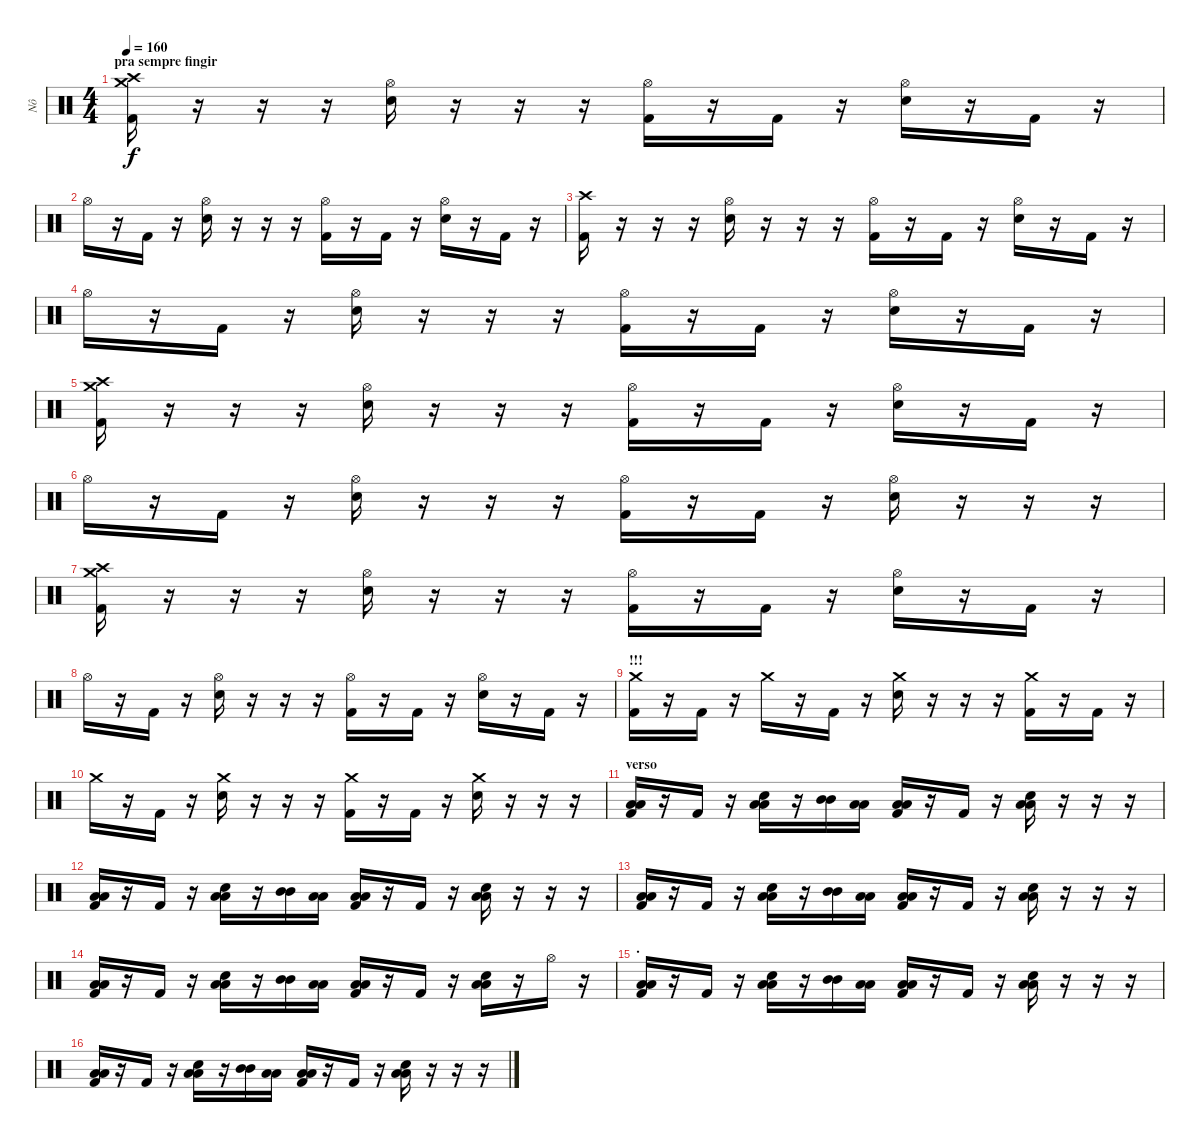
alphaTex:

\track ("Nô" "Nô") {instrument percussion}
\staff {score}
\articulation defaults
\ts (4 4)
\section ("" "pra sempre fingir")
\tempo 160
\clef neutral
\ks c
("Crash high (hit)" "Crash medium (hit)" "Kick (hit) 2").16{dy f} r.16 r.16 r.16 ("Hi-Hat (open)" "Electric Snare (hit)").16 r.16 r.16 r.16 ("Hi-Hat (open)" "Kick (hit) 2").16 r.16 "Kick (hit) 2".16 r.16 ("Hi-Hat (open)" "Electric Snare (hit)").16 r.16 "Kick (hit) 2".16 r.16 |
"Hi-Hat (open)".16 r.16 "Kick (hit) 2".16 r.16 ("Hi-Hat (open)" "Electric Snare (hit)").16 r.16 r.16 r.16 ("Hi-Hat (open)" "Kick (hit) 2").16 r.16 "Kick (hit) 2".16 r.16 ("Hi-Hat (open)" "Electric Snare (hit)").16 r.16 "Kick (hit) 2".16 r.16 |
("Crash high (hit)" "Kick (hit) 2").16 r.16 r.16 r.16 ("Hi-Hat (open)" "Electric Snare (hit)").16 r.16 r.16 r.16 ("Hi-Hat (open)" "Kick (hit) 2").16 r.16 "Kick (hit) 2".16 r.16 ("Hi-Hat (open)" "Electric Snare (hit)").16 r.16 "Kick (hit) 2".16 r.16 |
"Hi-Hat (open)".16 r.16 "Kick (hit) 2".16 r.16 ("Hi-Hat (open)" "Electric Snare (hit)").16 r.16 r.16 r.16 ("Hi-Hat (open)" "Kick (hit) 2").16 r.16 "Kick (hit) 2".16 r.16 ("Hi-Hat (open)" "Electric Snare (hit)").16 r.16 "Kick (hit) 2".16 r.16 |
("Crash high (hit)" "Crash medium (hit)" "Kick (hit) 2").16 r.16 r.16 r.16 ("Hi-Hat (open)" "Electric Snare (hit)").16 r.16 r.16 r.16 ("Hi-Hat (open)" "Kick (hit) 2").16 r.16 "Kick (hit) 2".16 r.16 ("Hi-Hat (open)" "Electric Snare (hit)").16 r.16 "Kick (hit) 2".16 r.16 |
"Hi-Hat (open)".16 r.16 "Kick (hit) 2".16 r.16 ("Hi-Hat (open)" "Electric Snare (hit)").16 r.16 r.16 r.16 ("Hi-Hat (open)" "Kick (hit) 2").16 r.16 "Kick (hit) 2".16 r.16 ("Hi-Hat (open)" "Electric Snare (hit)").16 r.16 r.16 r.16 |
("Crash high (hit)" "Crash medium (hit)" "Kick (hit) 2").16 r.16 r.16 r.16 ("Hi-Hat (open)" "Electric Snare (hit)").16 r.16 r.16 r.16 ("Hi-Hat (open)" "Kick (hit) 2").16 r.16 "Kick (hit) 2".16 r.16 ("Hi-Hat (open)" "Electric Snare (hit)").16 r.16 "Kick (hit) 2".16 r.16 |
"Hi-Hat (open)".16 r.16 "Kick (hit) 2".16 r.16 ("Hi-Hat (open)" "Electric Snare (hit)").16 r.16 r.16 r.16 ("Hi-Hat (open)" "Kick (hit) 2").16 r.16 "Kick (hit) 2".16 r.16 ("Hi-Hat (open)" "Electric Snare (hit)").16 r.16 "Kick (hit) 2".16 r.16 |
\section ("" "!!!")
("Crash medium (hit)" "Kick (hit) 2").16 r.16 "Kick (hit) 2".16 r.16 "Crash medium (hit)".16 r.16 "Kick (hit) 2".16 r.16 ("Crash medium (hit)" "Electric Snare (hit)").16 r.16 r.16 r.16 ("Crash medium (hit)" "Kick (hit) 2").16 r.16 "Kick (hit) 2".16 r.16 |
"Crash medium (hit)".16 r.16 "Kick (hit) 2".16 r.16 ("Crash medium (hit)" "Electric Snare (hit)").16 r.16 r.16 r.16 ("Crash medium (hit)" "Kick (hit) 2").16 r.16 "Kick (hit) 2".16 r.16 ("Crash medium (hit)" "Electric Snare (hit)").16 r.16 r.16 r.16 |
\section ("" "verso")
("Low Tom (hit)" "Low Tom (hit)" "Kick (hit) 2").16 r.16 "Kick (hit) 2".16 r.16 ("Low Tom (hit)" "Low Tom (hit)" "Electric Snare (hit)").16 r.16 ("Mid Tom (hit)" "Mid Tom (hit)").16 ("Low Tom (hit)" "Low Tom (hit)").16 ("Low Tom (hit)" "Low Tom (hit)" "Kick (hit) 2").16 r.16 "Kick (hit) 2".16 r.16 ("Low Tom (hit)" "Low Tom (hit)" "Electric Snare (hit)").16 r.16 r.16 r.16 |
("Low Tom (hit)" "Low Tom (hit)" "Kick (hit) 2").16 r.16 "Kick (hit) 2".16 r.16 ("Low Tom (hit)" "Low Tom (hit)" "Electric Snare (hit)").16 r.16 ("Mid Tom (hit)" "Mid Tom (hit)").16 ("Low Tom (hit)" "Low Tom (hit)").16 ("Low Tom (hit)" "Low Tom (hit)" "Kick (hit) 2").16 r.16 "Kick (hit) 2".16 r.16 ("Low Tom (hit)" "Low Tom (hit)" "Electric Snare (hit)").16 r.16 r.16 r.16 |
("Low Tom (hit)" "Low Tom (hit)" "Kick (hit) 2").16 r.16 "Kick (hit) 2".16 r.16 ("Low Tom (hit)" "Low Tom (hit)" "Electric Snare (hit)").16 r.16 ("Mid Tom (hit)" "Mid Tom (hit)").16 ("Low Tom (hit)" "Low Tom (hit)").16 ("Low Tom (hit)" "Low Tom (hit)" "Kick (hit) 2").16 r.16 "Kick (hit) 2".16 r.16 ("Low Tom (hit)" "Low Tom (hit)" "Electric Snare (hit)").16 r.16 r.16 r.16 |
("Low Tom (hit)" "Low Tom (hit)" "Kick (hit) 2").16 r.16 "Kick (hit) 2".16 r.16 ("Low Tom (hit)" "Low Tom (hit)" "Electric Snare (hit)").16 r.16 ("Mid Tom (hit)" "Mid Tom (hit)").16 ("Low Tom (hit)" "Low Tom (hit)").16 ("Low Tom (hit)" "Low Tom (hit)" "Kick (hit) 2").16 r.16 "Kick (hit) 2".16 r.16 ("Low Tom (hit)" "Low Tom (hit)" "Electric Snare (hit)").16 r.16 "Hi-Hat (open)".16 r.16 |
\section ("" ".")
("Low Tom (hit)" "Low Tom (hit)" "Kick (hit) 2").16 r.16 "Kick (hit) 2".16 r.16 ("Low Tom (hit)" "Low Tom (hit)" "Electric Snare (hit)").16 r.16 ("Mid Tom (hit)" "Mid Tom (hit)").16 ("Low Tom (hit)" "Low Tom (hit)").16 ("Low Tom (hit)" "Low Tom (hit)" "Kick (hit) 2").16 r.16 "Kick (hit) 2".16 r.16 ("Low Tom (hit)" "Low Tom (hit)" "Electric Snare (hit)").16 r.16 r.16 r.16 |
("Low Tom (hit)" "Low Tom (hit)" "Kick (hit) 2").16 r.16 "Kick (hit) 2".16 r.16 ("Low Tom (hit)" "Low Tom (hit)" "Electric Snare (hit)").16 r.16 ("Mid Tom (hit)" "Mid Tom (hit)").16 ("Low Tom (hit)" "Low Tom (hit)").16 ("Low Tom (hit)" "Low Tom (hit)" "Kick (hit) 2").16 r.16 "Kick (hit) 2".16 r.16 ("Low Tom (hit)" "Low Tom (hit)" "Electric Snare (hit)").16 r.16 r.16 r.16
